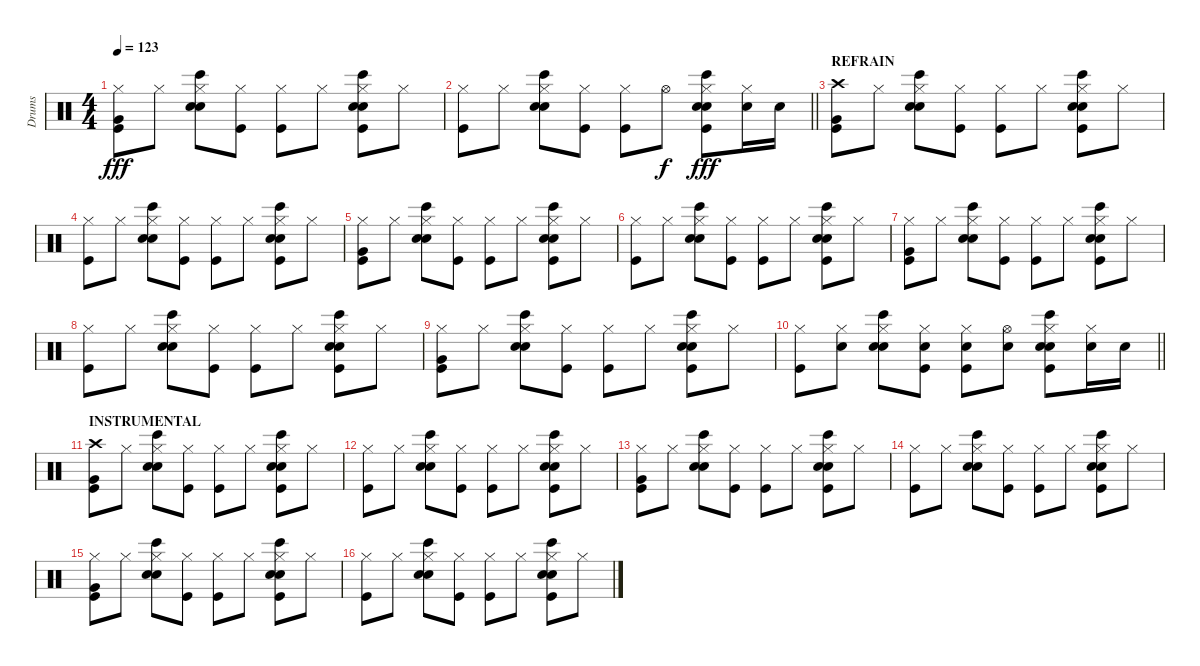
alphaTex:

\track ("Drums" "Drums") {instrument percussion}
\staff {score}
\articulation defaults
\ts (4 4)
\tempo 123
\clef neutral
\ks c
("Kick (hit)" "Hi-Hat (closed)" "Very Low Tom (hit)").8{dy fff} "Hi-Hat (closed)".8 ("Hi-Hat (closed)" "Bongo High (hit)" "Hand Clap (hit)" "Electric Snare (hit)").8 ("Kick (hit)" "Hi-Hat (closed)").8 ("Hi-Hat (closed)" "Kick (hit)").8 "Hi-Hat (closed)".8 ("Hi-Hat (closed)" "Kick (hit)" "Electric Snare (hit)" "Hand Clap (hit)" "Bongo High (hit)").8 "Hi-Hat (closed)".8 |
\barLineRight lightlight
("Hi-Hat (closed)" "Kick (hit)").8 "Hi-Hat (closed)".8 ("Hi-Hat (closed)" "Electric Snare (hit)" "Bongo High (hit)" "Hand Clap (hit)").8 ("Hi-Hat (closed)" "Kick (hit)").8 ("Hi-Hat (closed)" "Kick (hit)").8 "Hi-Hat (open)".8{dy f} ("Hi-Hat (closed)" "Bongo High (hit)" "Electric Snare (hit)" "Kick (hit)" "Hand Clap (hit)").8{dy fff} ("Electric Snare (hit)" "Hi-Hat (closed)").16 "Electric Snare (hit)".16 |
\section ("" "REFRAIN")
("Kick (hit)" "Crash high (hit)" "Very Low Tom (hit)").8 "Hi-Hat (closed)".8 ("Hi-Hat (closed)" "Bongo High (hit)" "Hand Clap (hit)" "Electric Snare (hit)").8 ("Kick (hit)" "Hi-Hat (closed)").8 ("Hi-Hat (closed)" "Kick (hit)").8 "Hi-Hat (closed)".8 ("Hi-Hat (closed)" "Kick (hit)" "Electric Snare (hit)" "Hand Clap (hit)" "Bongo High (hit)").8 "Hi-Hat (closed)".8 |
("Hi-Hat (closed)" "Kick (hit)").8 "Hi-Hat (closed)".8 ("Hi-Hat (closed)" "Electric Snare (hit)" "Bongo High (hit)" "Hand Clap (hit)").8 ("Hi-Hat (closed)" "Kick (hit)").8 ("Hi-Hat (closed)" "Kick (hit)").8 "Hi-Hat (closed)".8 ("Hi-Hat (closed)" "Kick (hit)" "Electric Snare (hit)" "Bongo High (hit)" "Hand Clap (hit)").8 "Hi-Hat (closed)".8 |
("Kick (hit)" "Hi-Hat (closed)" "Very Low Tom (hit)").8 "Hi-Hat (closed)".8 ("Hi-Hat (closed)" "Bongo High (hit)" "Hand Clap (hit)" "Electric Snare (hit)").8 ("Kick (hit)" "Hi-Hat (closed)").8 ("Hi-Hat (closed)" "Kick (hit)").8 "Hi-Hat (closed)".8 ("Hi-Hat (closed)" "Kick (hit)" "Electric Snare (hit)" "Hand Clap (hit)" "Bongo High (hit)").8 "Hi-Hat (closed)".8 |
("Hi-Hat (closed)" "Kick (hit)").8 "Hi-Hat (closed)".8 ("Hi-Hat (closed)" "Electric Snare (hit)" "Bongo High (hit)" "Hand Clap (hit)").8 ("Hi-Hat (closed)" "Kick (hit)").8 ("Hi-Hat (closed)" "Kick (hit)").8 "Hi-Hat (closed)".8 ("Hi-Hat (closed)" "Kick (hit)" "Electric Snare (hit)" "Bongo High (hit)" "Hand Clap (hit)").8 "Hi-Hat (closed)".8 |
("Kick (hit)" "Hi-Hat (closed)" "Very Low Tom (hit)").8 "Hi-Hat (closed)".8 ("Hi-Hat (closed)" "Bongo High (hit)" "Hand Clap (hit)" "Electric Snare (hit)").8 ("Kick (hit)" "Hi-Hat (closed)").8 ("Hi-Hat (closed)" "Kick (hit)").8 "Hi-Hat (closed)".8 ("Hi-Hat (closed)" "Kick (hit)" "Electric Snare (hit)" "Hand Clap (hit)" "Bongo High (hit)").8 "Hi-Hat (closed)".8 |
("Hi-Hat (closed)" "Kick (hit)").8 "Hi-Hat (closed)".8 ("Hi-Hat (closed)" "Electric Snare (hit)" "Bongo High (hit)" "Hand Clap (hit)").8 ("Hi-Hat (closed)" "Kick (hit)").8 ("Hi-Hat (closed)" "Kick (hit)").8 "Hi-Hat (closed)".8 ("Hi-Hat (closed)" "Kick (hit)" "Electric Snare (hit)" "Bongo High (hit)" "Hand Clap (hit)").8 "Hi-Hat (closed)".8 |
("Kick (hit)" "Hi-Hat (closed)" "Very Low Tom (hit)").8 "Hi-Hat (closed)".8 ("Hi-Hat (closed)" "Bongo High (hit)" "Hand Clap (hit)" "Electric Snare (hit)").8 ("Kick (hit)" "Hi-Hat (closed)").8 ("Hi-Hat (closed)" "Kick (hit)").8 "Hi-Hat (closed)".8 ("Hi-Hat (closed)" "Kick (hit)" "Electric Snare (hit)" "Hand Clap (hit)" "Bongo High (hit)").8 "Hi-Hat (closed)".8 |
\barLineRight lightlight
("Hi-Hat (closed)" "Kick (hit)").8 ("Hi-Hat (closed)" "Electric Snare (hit)").8 ("Hi-Hat (closed)" "Hand Clap (hit)" "Bongo High (hit)" "Electric Snare (hit)").8 ("Kick (hit)" "Hi-Hat (closed)" "Electric Snare (hit)").8 ("Hi-Hat (closed)" "Kick (hit)" "Electric Snare (hit)").8 ("Hi-Hat (open)" "Electric Snare (hit)").8 ("Hi-Hat (closed)" "Hand Clap (hit)" "Kick (hit)" "Bongo High (hit)" "Electric Snare (hit)").8 ("Electric Snare (hit)" "Hi-Hat (closed)").16 "Electric Snare (hit)".16 |
\section ("" "INSTRUMENTAL")
("Kick (hit)" "Crash high (hit)" "Very Low Tom (hit)").8 "Hi-Hat (closed)".8 ("Hi-Hat (closed)" "Bongo High (hit)" "Hand Clap (hit)" "Electric Snare (hit)").8 ("Kick (hit)" "Hi-Hat (closed)").8 ("Hi-Hat (closed)" "Kick (hit)").8 "Hi-Hat (closed)".8 ("Hi-Hat (closed)" "Kick (hit)" "Electric Snare (hit)" "Hand Clap (hit)" "Bongo High (hit)").8 "Hi-Hat (closed)".8 |
("Hi-Hat (closed)" "Kick (hit)").8 "Hi-Hat (closed)".8 ("Hi-Hat (closed)" "Electric Snare (hit)" "Bongo High (hit)" "Hand Clap (hit)").8 ("Hi-Hat (closed)" "Kick (hit)").8 ("Hi-Hat (closed)" "Kick (hit)").8 "Hi-Hat (closed)".8 ("Hi-Hat (closed)" "Kick (hit)" "Electric Snare (hit)" "Bongo High (hit)" "Hand Clap (hit)").8 "Hi-Hat (closed)".8 |
("Kick (hit)" "Hi-Hat (closed)" "Very Low Tom (hit)").8 "Hi-Hat (closed)".8 ("Hi-Hat (closed)" "Bongo High (hit)" "Hand Clap (hit)" "Electric Snare (hit)").8 ("Kick (hit)" "Hi-Hat (closed)").8 ("Hi-Hat (closed)" "Kick (hit)").8 "Hi-Hat (closed)".8 ("Hi-Hat (closed)" "Kick (hit)" "Electric Snare (hit)" "Hand Clap (hit)" "Bongo High (hit)").8 "Hi-Hat (closed)".8 |
("Hi-Hat (closed)" "Kick (hit)").8 "Hi-Hat (closed)".8 ("Hi-Hat (closed)" "Electric Snare (hit)" "Bongo High (hit)" "Hand Clap (hit)").8 ("Hi-Hat (closed)" "Kick (hit)").8 ("Hi-Hat (closed)" "Kick (hit)").8 "Hi-Hat (closed)".8 ("Hi-Hat (closed)" "Kick (hit)" "Electric Snare (hit)" "Bongo High (hit)" "Hand Clap (hit)").8 "Hi-Hat (closed)".8 |
("Kick (hit)" "Hi-Hat (closed)" "Very Low Tom (hit)").8 "Hi-Hat (closed)".8 ("Hi-Hat (closed)" "Bongo High (hit)" "Hand Clap (hit)" "Electric Snare (hit)").8 ("Kick (hit)" "Hi-Hat (closed)").8 ("Hi-Hat (closed)" "Kick (hit)").8 "Hi-Hat (closed)".8 ("Hi-Hat (closed)" "Kick (hit)" "Electric Snare (hit)" "Hand Clap (hit)" "Bongo High (hit)").8 "Hi-Hat (closed)".8 |
("Hi-Hat (closed)" "Kick (hit)").8 "Hi-Hat (closed)".8 ("Hi-Hat (closed)" "Electric Snare (hit)" "Bongo High (hit)" "Hand Clap (hit)").8 ("Hi-Hat (closed)" "Kick (hit)").8 ("Hi-Hat (closed)" "Kick (hit)").8 "Hi-Hat (closed)".8 ("Hi-Hat (closed)" "Kick (hit)" "Electric Snare (hit)" "Bongo High (hit)" "Hand Clap (hit)").8 "Hi-Hat (closed)".8
